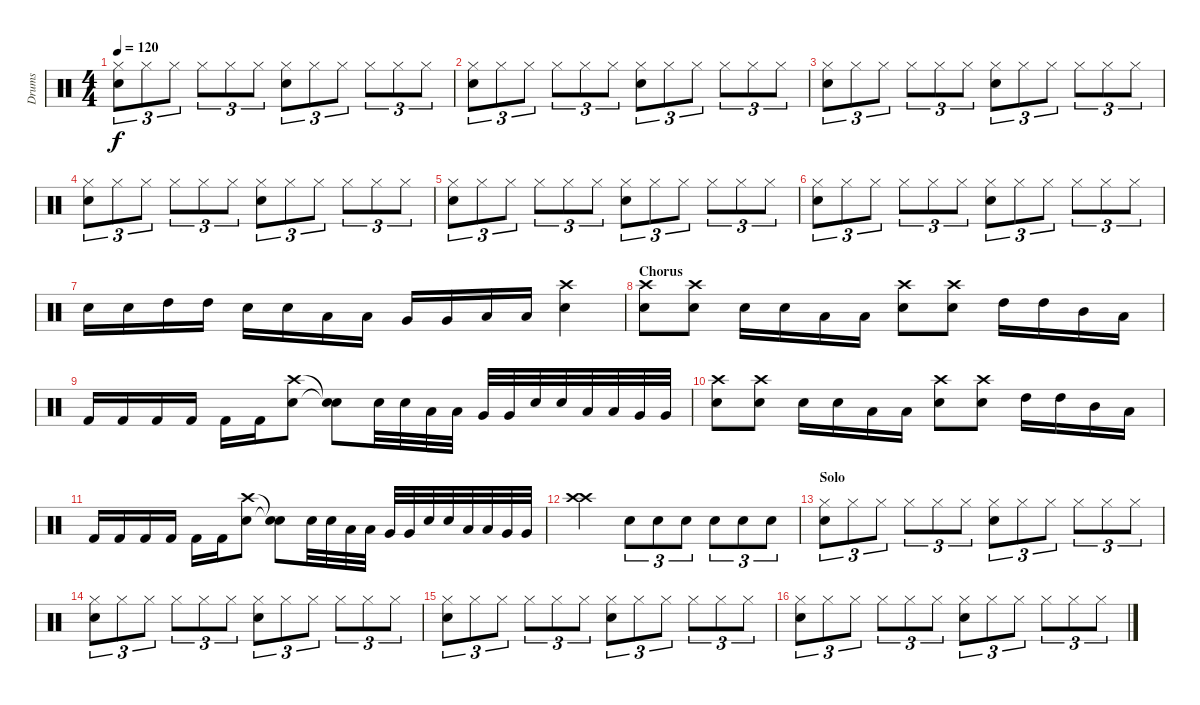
\track ("Drums" "Drums") {instrument percussion}
\staff {score}
\articulation defaults
\ts (4 4)
\tempo 120
\clef neutral
\ks c
("Hi-Hat (closed)" "Electric Snare (hit)").8{tu (3 2) dy f} "Hi-Hat (closed)".8{tu (3 2)} "Hi-Hat (closed)".8{tu (3 2)} "Hi-Hat (closed)".8{tu (3 2)} "Hi-Hat (closed)".8{tu (3 2)} "Hi-Hat (closed)".8{tu (3 2)} ("Hi-Hat (closed)" "Electric Snare (hit)").8{tu (3 2)} "Hi-Hat (closed)".8{tu (3 2)} "Hi-Hat (closed)".8{tu (3 2)} "Hi-Hat (closed)".8{tu (3 2)} "Hi-Hat (closed)".8{tu (3 2)} "Hi-Hat (closed)".8{tu (3 2)} |
("Hi-Hat (closed)" "Electric Snare (hit)").8{tu (3 2)} "Hi-Hat (closed)".8{tu (3 2)} "Hi-Hat (closed)".8{tu (3 2)} "Hi-Hat (closed)".8{tu (3 2)} "Hi-Hat (closed)".8{tu (3 2)} "Hi-Hat (closed)".8{tu (3 2)} ("Hi-Hat (closed)" "Electric Snare (hit)").8{tu (3 2)} "Hi-Hat (closed)".8{tu (3 2)} "Hi-Hat (closed)".8{tu (3 2)} "Hi-Hat (closed)".8{tu (3 2)} "Hi-Hat (closed)".8{tu (3 2)} "Hi-Hat (closed)".8{tu (3 2)} |
("Hi-Hat (closed)" "Electric Snare (hit)").8{tu (3 2)} "Hi-Hat (closed)".8{tu (3 2)} "Hi-Hat (closed)".8{tu (3 2)} "Hi-Hat (closed)".8{tu (3 2)} "Hi-Hat (closed)".8{tu (3 2)} "Hi-Hat (closed)".8{tu (3 2)} ("Hi-Hat (closed)" "Electric Snare (hit)").8{tu (3 2)} "Hi-Hat (closed)".8{tu (3 2)} "Hi-Hat (closed)".8{tu (3 2)} "Hi-Hat (closed)".8{tu (3 2)} "Hi-Hat (closed)".8{tu (3 2)} "Hi-Hat (closed)".8{tu (3 2)} |
("Hi-Hat (closed)" "Electric Snare (hit)").8{tu (3 2)} "Hi-Hat (closed)".8{tu (3 2)} "Hi-Hat (closed)".8{tu (3 2)} "Hi-Hat (closed)".8{tu (3 2)} "Hi-Hat (closed)".8{tu (3 2)} "Hi-Hat (closed)".8{tu (3 2)} ("Hi-Hat (closed)" "Electric Snare (hit)").8{tu (3 2)} "Hi-Hat (closed)".8{tu (3 2)} "Hi-Hat (closed)".8{tu (3 2)} "Hi-Hat (closed)".8{tu (3 2)} "Hi-Hat (closed)".8{tu (3 2)} "Hi-Hat (closed)".8{tu (3 2)} |
("Hi-Hat (closed)" "Electric Snare (hit)").8{tu (3 2)} "Hi-Hat (closed)".8{tu (3 2)} "Hi-Hat (closed)".8{tu (3 2)} "Hi-Hat (closed)".8{tu (3 2)} "Hi-Hat (closed)".8{tu (3 2)} "Hi-Hat (closed)".8{tu (3 2)} ("Hi-Hat (closed)" "Electric Snare (hit)").8{tu (3 2)} "Hi-Hat (closed)".8{tu (3 2)} "Hi-Hat (closed)".8{tu (3 2)} "Hi-Hat (closed)".8{tu (3 2)} "Hi-Hat (closed)".8{tu (3 2)} "Hi-Hat (closed)".8{tu (3 2)} |
("Hi-Hat (closed)" "Electric Snare (hit)").8{tu (3 2)} "Hi-Hat (closed)".8{tu (3 2)} "Hi-Hat (closed)".8{tu (3 2)} "Hi-Hat (closed)".8{tu (3 2)} "Hi-Hat (closed)".8{tu (3 2)} "Hi-Hat (closed)".8{tu (3 2)} ("Hi-Hat (closed)" "Electric Snare (hit)").8{tu (3 2)} "Hi-Hat (closed)".8{tu (3 2)} "Hi-Hat (closed)".8{tu (3 2)} "Hi-Hat (closed)".8{tu (3 2)} "Hi-Hat (closed)".8{tu (3 2)} "Hi-Hat (closed)".8{tu (3 2)} |
"Electric Snare (hit)".16 "Electric Snare (hit)".16 "High Tom (hit)".16 "High Tom (hit)".16 "Electric Snare (hit)".16 "Electric Snare (hit)".16 "Low Tom (hit)".16 "Low Tom (hit)".16 "Very Low Tom (hit)".16 "Very Low Tom (hit)".16 "Low Floor Tom (hit)".16 "Low Floor Tom (hit)".16 ("Crash high (hit)" "Electric Snare (hit)").4 |
\section ("" "Chorus")
("Crash high (hit)" "Electric Snare (hit)").8 ("Crash high (hit)" "Electric Snare (hit)").8 "Electric Snare (hit)".16 "Electric Snare (hit)".16 "Low Tom (hit)".16 "Low Tom (hit)".16 ("Crash high (hit)" "Electric Snare (hit)").8 ("Crash high (hit)" "Electric Snare (hit)").8 "High Tom (hit)".16 "High Tom (hit)".16 "Mid Tom (hit)".16 "Low Tom (hit)".16 |
"Kick (hit) 2".16 "Kick (hit) 2".16 "Kick (hit) 2".16 "Kick (hit) 2".16 "Kick (hit) 2".16 "Kick (hit) 2".16 ("Crash high (hit)" "Electric Snare (hit)").8 ("Snare (hit)"{t} "Snare (hit)"{t}).8 "Electric Snare (hit)".32 "Electric Snare (hit)".32 "Low Tom (hit)".32 "Low Tom (hit)".32 "Very Low Tom (hit)".32 "Very Low Tom (hit)".32 "Electric Snare (hit)".32 "Electric Snare (hit)".32 "Low Tom (hit)".32 "Low Tom (hit)".32 "Very Low Tom (hit)".32 "Very Low Tom (hit)".32 |
("Crash high (hit)" "Electric Snare (hit)").8 ("Crash high (hit)" "Electric Snare (hit)").8 "Electric Snare (hit)".16 "Electric Snare (hit)".16 "Low Tom (hit)".16 "Low Tom (hit)".16 ("Crash high (hit)" "Electric Snare (hit)").8 ("Crash high (hit)" "Electric Snare (hit)").8 "High Tom (hit)".16 "High Tom (hit)".16 "Mid Tom (hit)".16 "Low Tom (hit)".16 |
"Kick (hit) 2".16 "Kick (hit) 2".16 "Kick (hit) 2".16 "Kick (hit) 2".16 "Kick (hit) 2".16 "Kick (hit) 2".16 ("Crash high (hit)" "Electric Snare (hit)").8 ("Snare (hit)"{t} "Snare (hit)"{t}).8 "Electric Snare (hit)".32 "Electric Snare (hit)".32 "Low Tom (hit)".32 "Low Tom (hit)".32 "Very Low Tom (hit)".32 "Very Low Tom (hit)".32 "Electric Snare (hit)".32 "Electric Snare (hit)".32 "Low Tom (hit)".32 "Low Tom (hit)".32 "Very Low Tom (hit)".32 "Very Low Tom (hit)".32 |
("Crash high (hit)" "Crash high (hit)").2 "Electric Snare (hit)".8{tu (3 2)} "Electric Snare (hit)".8{tu (3 2)} "Electric Snare (hit)".8{tu (3 2)} "Electric Snare (hit)".8{tu (3 2)} "Electric Snare (hit)".8{tu (3 2)} "Electric Snare (hit)".8{tu (3 2)} |
\section ("" "Solo")
("Hi-Hat (closed)" "Electric Snare (hit)").8{tu (3 2)} "Hi-Hat (closed)".8{tu (3 2)} "Hi-Hat (closed)".8{tu (3 2)} "Hi-Hat (closed)".8{tu (3 2)} "Hi-Hat (closed)".8{tu (3 2)} "Hi-Hat (closed)".8{tu (3 2)} ("Hi-Hat (closed)" "Electric Snare (hit)").8{tu (3 2)} "Hi-Hat (closed)".8{tu (3 2)} "Hi-Hat (closed)".8{tu (3 2)} "Hi-Hat (closed)".8{tu (3 2)} "Hi-Hat (closed)".8{tu (3 2)} "Hi-Hat (closed)".8{tu (3 2)} |
("Hi-Hat (closed)" "Electric Snare (hit)").8{tu (3 2)} "Hi-Hat (closed)".8{tu (3 2)} "Hi-Hat (closed)".8{tu (3 2)} "Hi-Hat (closed)".8{tu (3 2)} "Hi-Hat (closed)".8{tu (3 2)} "Hi-Hat (closed)".8{tu (3 2)} ("Hi-Hat (closed)" "Electric Snare (hit)").8{tu (3 2)} "Hi-Hat (closed)".8{tu (3 2)} "Hi-Hat (closed)".8{tu (3 2)} "Hi-Hat (closed)".8{tu (3 2)} "Hi-Hat (closed)".8{tu (3 2)} "Hi-Hat (closed)".8{tu (3 2)} |
("Hi-Hat (closed)" "Electric Snare (hit)").8{tu (3 2)} "Hi-Hat (closed)".8{tu (3 2)} "Hi-Hat (closed)".8{tu (3 2)} "Hi-Hat (closed)".8{tu (3 2)} "Hi-Hat (closed)".8{tu (3 2)} "Hi-Hat (closed)".8{tu (3 2)} ("Hi-Hat (closed)" "Electric Snare (hit)").8{tu (3 2)} "Hi-Hat (closed)".8{tu (3 2)} "Hi-Hat (closed)".8{tu (3 2)} "Hi-Hat (closed)".8{tu (3 2)} "Hi-Hat (closed)".8{tu (3 2)} "Hi-Hat (closed)".8{tu (3 2)} |
("Hi-Hat (closed)" "Electric Snare (hit)").8{tu (3 2)} "Hi-Hat (closed)".8{tu (3 2)} "Hi-Hat (closed)".8{tu (3 2)} "Hi-Hat (closed)".8{tu (3 2)} "Hi-Hat (closed)".8{tu (3 2)} "Hi-Hat (closed)".8{tu (3 2)} ("Hi-Hat (closed)" "Electric Snare (hit)").8{tu (3 2)} "Hi-Hat (closed)".8{tu (3 2)} "Hi-Hat (closed)".8{tu (3 2)} "Hi-Hat (closed)".8{tu (3 2)} "Hi-Hat (closed)".8{tu (3 2)} "Hi-Hat (closed)".8{tu (3 2)}
